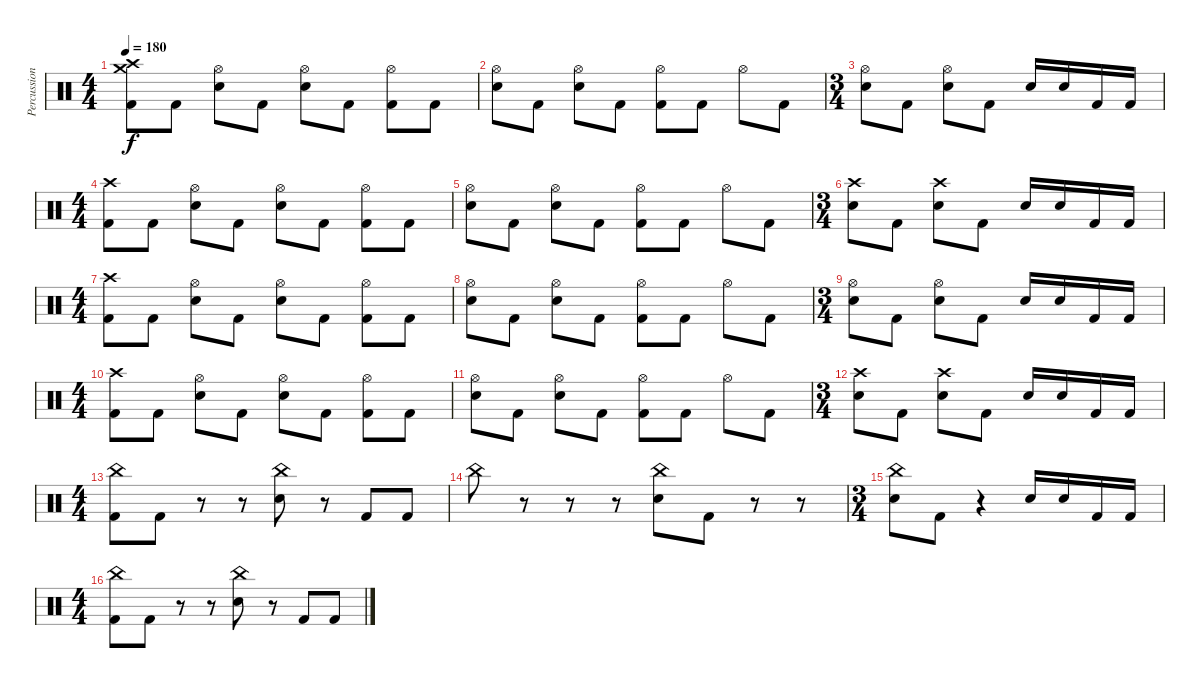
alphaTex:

\track ("Percussion" "Percussion") {instrument percussion}
\staff {score}
\articulation defaults
\ts (4 4)
\tempo 180
\clef neutral
\ks c
("Crash high (hit)" "Crash medium (hit)" "Kick (hit) 2").8{dy f} "Kick (hit) 2".8 ("Hi-Hat (open)" "Electric Snare (hit)").8 "Kick (hit) 2".8 ("Hi-Hat (open)" "Electric Snare (hit)").8 "Kick (hit) 2".8 ("Hi-Hat (open)" "Kick (hit) 2").8 "Kick (hit) 2".8 |
("Hi-Hat (open)" "Electric Snare (hit)").8 "Kick (hit) 2".8 ("Hi-Hat (open)" "Electric Snare (hit)").8 "Kick (hit) 2".8 ("Hi-Hat (open)" "Kick (hit) 2").8 "Kick (hit) 2".8 "Hi-Hat (open)".8 "Kick (hit) 2".8 |
\ts (3 4)
("Hi-Hat (open)" "Electric Snare (hit)").8 "Kick (hit) 2".8 ("Hi-Hat (open)" "Electric Snare (hit)").8 "Kick (hit) 2".8 "Electric Snare (hit)".16 "Electric Snare (hit)".16 "Kick (hit) 2".16 "Kick (hit) 2".16 |
\ts (4 4)
("Crash high (hit)" "Kick (hit) 2").8 "Kick (hit) 2".8 ("Hi-Hat (open)" "Electric Snare (hit)").8 "Kick (hit) 2".8 ("Hi-Hat (open)" "Electric Snare (hit)").8 "Kick (hit) 2".8 ("Hi-Hat (open)" "Kick (hit) 2").8 "Kick (hit) 2".8 |
("Hi-Hat (open)" "Electric Snare (hit)").8 "Kick (hit) 2".8 ("Hi-Hat (open)" "Electric Snare (hit)").8 "Kick (hit) 2".8 ("Hi-Hat (open)" "Kick (hit) 2").8 "Kick (hit) 2".8 "Hi-Hat (open)".8 "Kick (hit) 2".8 |
\ts (3 4)
("Crash high (hit)" "Electric Snare (hit)").8 "Kick (hit) 2".8 ("Crash high (hit)" "Electric Snare (hit)").8 "Kick (hit) 2".8 "Electric Snare (hit)".16 "Electric Snare (hit)".16 "Kick (hit) 2".16 "Kick (hit) 2".16 |
\ts (4 4)
("Crash high (hit)" "Kick (hit) 2").8 "Kick (hit) 2".8 ("Hi-Hat (open)" "Electric Snare (hit)").8 "Kick (hit) 2".8 ("Hi-Hat (open)" "Electric Snare (hit)").8 "Kick (hit) 2".8 ("Hi-Hat (open)" "Kick (hit) 2").8 "Kick (hit) 2".8 |
("Hi-Hat (open)" "Electric Snare (hit)").8 "Kick (hit) 2".8 ("Hi-Hat (open)" "Electric Snare (hit)").8 "Kick (hit) 2".8 ("Hi-Hat (open)" "Kick (hit) 2").8 "Kick (hit) 2".8 "Hi-Hat (open)".8 "Kick (hit) 2".8 |
\ts (3 4)
("Hi-Hat (open)" "Electric Snare (hit)").8 "Kick (hit) 2".8 ("Hi-Hat (open)" "Electric Snare (hit)").8 "Kick (hit) 2".8 "Electric Snare (hit)".16 "Electric Snare (hit)".16 "Kick (hit) 2".16 "Kick (hit) 2".16 |
\ts (4 4)
("Crash high (hit)" "Kick (hit) 2").8 "Kick (hit) 2".8 ("Hi-Hat (open)" "Electric Snare (hit)").8 "Kick (hit) 2".8 ("Hi-Hat (open)" "Electric Snare (hit)").8 "Kick (hit) 2".8 ("Hi-Hat (open)" "Kick (hit) 2").8 "Kick (hit) 2".8 |
("Hi-Hat (open)" "Electric Snare (hit)").8 "Kick (hit) 2".8 ("Hi-Hat (open)" "Electric Snare (hit)").8 "Kick (hit) 2".8 ("Hi-Hat (open)" "Kick (hit) 2").8 "Kick (hit) 2".8 "Hi-Hat (open)".8 "Kick (hit) 2".8 |
\ts (3 4)
("Crash high (hit)" "Electric Snare (hit)").8 "Kick (hit) 2".8 ("Crash high (hit)" "Electric Snare (hit)").8 "Kick (hit) 2".8 "Electric Snare (hit)".16 "Electric Snare (hit)".16 "Kick (hit) 2".16 "Kick (hit) 2".16 |
\ts (4 4)
("China (hit)" "Kick (hit) 2").8 "Kick (hit) 2".8 r.8 r.8 ("China (hit)" "Electric Snare (hit)").8 r.8 "Kick (hit) 2".8 "Kick (hit) 2".8 |
"China (hit)".8 r.8 r.8 r.8 ("China (hit)" "Electric Snare (hit)").8 "Kick (hit) 2".8 r.8 r.8 |
\ts (3 4)
("China (hit)" "Electric Snare (hit)").8 "Kick (hit) 2".8 r.4 "Electric Snare (hit)".16 "Electric Snare (hit)".16 "Kick (hit) 2".16 "Kick (hit) 2".16 |
\ts (4 4)
("China (hit)" "Kick (hit) 2").8 "Kick (hit) 2".8 r.8 r.8 ("China (hit)" "Electric Snare (hit)").8 r.8 "Kick (hit) 2".8 "Kick (hit) 2".8
